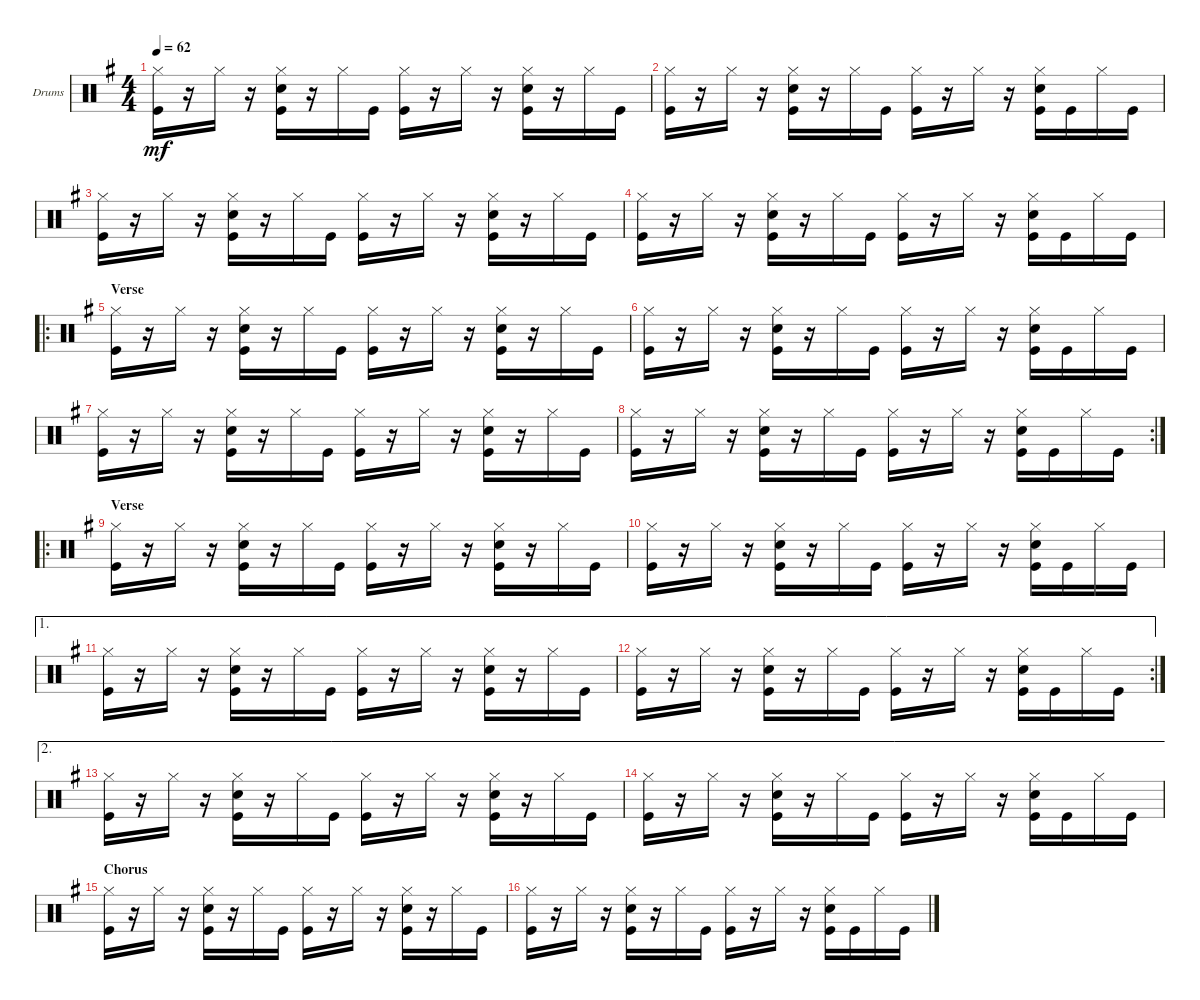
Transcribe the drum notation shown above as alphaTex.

\defaultSystemsLayout 4
\bracketExtendMode groupsimilarinstruments
\firstSystemTrackNameOrientation horizontal
\otherSystemsTrackNameOrientation horizontal
\track ("Drumkit" "Drums") {instrument percussion}
\staff {score}
\articulation defaults
\ts (4 4)
\tempo 62
\clef neutral
\ks g
("Hi-Hat (closed)" "Kick (hit)").16{dy mf} r.16 "Hi-Hat (closed)".16 r.16 ("Hi-Hat (closed)" "Kick (hit)" "Snare (hit) 2").16 r.16 "Hi-Hat (closed)".16 "Kick (hit)".16 ("Kick (hit)" "Hi-Hat (closed)").16 r.16 "Hi-Hat (closed)".16 r.16 ("Hi-Hat (closed)" "Kick (hit)" "Snare (hit) 2").16 r.16 "Hi-Hat (closed)".16 "Kick (hit)".16 |
("Hi-Hat (closed)" "Kick (hit)").16 r.16 "Hi-Hat (closed)".16 r.16 ("Hi-Hat (closed)" "Kick (hit)" "Snare (hit) 2").16 r.16 "Hi-Hat (closed)".16 "Kick (hit)".16 ("Kick (hit)" "Hi-Hat (closed)").16 r.16 "Hi-Hat (closed)".16 r.16 ("Hi-Hat (closed)" "Kick (hit)" "Snare (hit) 2").16 "Kick (hit)".16 "Hi-Hat (closed)".16 "Kick (hit)".16 |
("Hi-Hat (closed)" "Kick (hit)").16 r.16 "Hi-Hat (closed)".16 r.16 ("Hi-Hat (closed)" "Kick (hit)" "Snare (hit) 2").16 r.16 "Hi-Hat (closed)".16 "Kick (hit)".16 ("Kick (hit)" "Hi-Hat (closed)").16 r.16 "Hi-Hat (closed)".16 r.16 ("Hi-Hat (closed)" "Kick (hit)" "Snare (hit) 2").16 r.16 "Hi-Hat (closed)".16 "Kick (hit)".16 |
("Hi-Hat (closed)" "Kick (hit)").16 r.16 "Hi-Hat (closed)".16 r.16 ("Hi-Hat (closed)" "Kick (hit)" "Snare (hit) 2").16 r.16 "Hi-Hat (closed)".16 "Kick (hit)".16 ("Kick (hit)" "Hi-Hat (closed)").16 r.16 "Hi-Hat (closed)".16 r.16 ("Hi-Hat (closed)" "Kick (hit)" "Snare (hit) 2").16 "Kick (hit)".16 "Hi-Hat (closed)".16 "Kick (hit)".16 |
\ro
\section ("" "Verse")
("Hi-Hat (closed)" "Kick (hit)").16 r.16 "Hi-Hat (closed)".16 r.16 ("Hi-Hat (closed)" "Kick (hit)" "Snare (hit) 2").16 r.16 "Hi-Hat (closed)".16 "Kick (hit)".16 ("Kick (hit)" "Hi-Hat (closed)").16 r.16 "Hi-Hat (closed)".16 r.16 ("Hi-Hat (closed)" "Kick (hit)" "Snare (hit) 2").16 r.16 "Hi-Hat (closed)".16 "Kick (hit)".16 |
("Hi-Hat (closed)" "Kick (hit)").16 r.16 "Hi-Hat (closed)".16 r.16 ("Hi-Hat (closed)" "Kick (hit)" "Snare (hit) 2").16 r.16 "Hi-Hat (closed)".16 "Kick (hit)".16 ("Kick (hit)" "Hi-Hat (closed)").16 r.16 "Hi-Hat (closed)".16 r.16 ("Hi-Hat (closed)" "Kick (hit)" "Snare (hit) 2").16 "Kick (hit)".16 "Hi-Hat (closed)".16 "Kick (hit)".16 |
("Hi-Hat (closed)" "Kick (hit)").16 r.16 "Hi-Hat (closed)".16 r.16 ("Hi-Hat (closed)" "Kick (hit)" "Snare (hit) 2").16 r.16 "Hi-Hat (closed)".16 "Kick (hit)".16 ("Kick (hit)" "Hi-Hat (closed)").16 r.16 "Hi-Hat (closed)".16 r.16 ("Hi-Hat (closed)" "Kick (hit)" "Snare (hit) 2").16 r.16 "Hi-Hat (closed)".16 "Kick (hit)".16 |
\rc 2
("Hi-Hat (closed)" "Kick (hit)").16 r.16 "Hi-Hat (closed)".16 r.16 ("Hi-Hat (closed)" "Kick (hit)" "Snare (hit) 2").16 r.16 "Hi-Hat (closed)".16 "Kick (hit)".16 ("Kick (hit)" "Hi-Hat (closed)").16 r.16 "Hi-Hat (closed)".16 r.16 ("Hi-Hat (closed)" "Kick (hit)" "Snare (hit) 2").16 "Kick (hit)".16 "Hi-Hat (closed)".16 "Kick (hit)".16 |
\ro
\section ("" "Verse")
("Hi-Hat (closed)" "Kick (hit)").16 r.16 "Hi-Hat (closed)".16 r.16 ("Hi-Hat (closed)" "Kick (hit)" "Snare (hit) 2").16 r.16 "Hi-Hat (closed)".16 "Kick (hit)".16 ("Kick (hit)" "Hi-Hat (closed)").16 r.16 "Hi-Hat (closed)".16 r.16 ("Hi-Hat (closed)" "Kick (hit)" "Snare (hit) 2").16 r.16 "Hi-Hat (closed)".16 "Kick (hit)".16 |
("Hi-Hat (closed)" "Kick (hit)").16 r.16 "Hi-Hat (closed)".16 r.16 ("Hi-Hat (closed)" "Kick (hit)" "Snare (hit) 2").16 r.16 "Hi-Hat (closed)".16 "Kick (hit)".16 ("Kick (hit)" "Hi-Hat (closed)").16 r.16 "Hi-Hat (closed)".16 r.16 ("Hi-Hat (closed)" "Kick (hit)" "Snare (hit) 2").16 "Kick (hit)".16 "Hi-Hat (closed)".16 "Kick (hit)".16 |
\ae 1
("Hi-Hat (closed)" "Kick (hit)").16 r.16 "Hi-Hat (closed)".16 r.16 ("Hi-Hat (closed)" "Kick (hit)" "Snare (hit) 2").16 r.16 "Hi-Hat (closed)".16 "Kick (hit)".16 ("Kick (hit)" "Hi-Hat (closed)").16 r.16 "Hi-Hat (closed)".16 r.16 ("Hi-Hat (closed)" "Kick (hit)" "Snare (hit) 2").16 r.16 "Hi-Hat (closed)".16 "Kick (hit)".16 |
\ae 1
\rc 2
("Hi-Hat (closed)" "Kick (hit)").16 r.16 "Hi-Hat (closed)".16 r.16 ("Hi-Hat (closed)" "Kick (hit)" "Snare (hit) 2").16 r.16 "Hi-Hat (closed)".16 "Kick (hit)".16 ("Kick (hit)" "Hi-Hat (closed)").16 r.16 "Hi-Hat (closed)".16 r.16 ("Hi-Hat (closed)" "Kick (hit)" "Snare (hit) 2").16 "Kick (hit)".16 "Hi-Hat (closed)".16 "Kick (hit)".16 |
\ae 2
("Hi-Hat (closed)" "Kick (hit)").16 r.16 "Hi-Hat (closed)".16 r.16 ("Hi-Hat (closed)" "Kick (hit)" "Snare (hit) 2").16 r.16 "Hi-Hat (closed)".16 "Kick (hit)".16 ("Kick (hit)" "Hi-Hat (closed)").16 r.16 "Hi-Hat (closed)".16 r.16 ("Hi-Hat (closed)" "Kick (hit)" "Snare (hit) 2").16 r.16 "Hi-Hat (closed)".16 "Kick (hit)".16 |
\ae 2
("Hi-Hat (closed)" "Kick (hit)").16 r.16 "Hi-Hat (closed)".16 r.16 ("Hi-Hat (closed)" "Kick (hit)" "Snare (hit) 2").16 r.16 "Hi-Hat (closed)".16 "Kick (hit)".16 ("Kick (hit)" "Hi-Hat (closed)").16 r.16 "Hi-Hat (closed)".16 r.16 ("Hi-Hat (closed)" "Kick (hit)" "Snare (hit) 2").16 "Kick (hit)".16 "Hi-Hat (closed)".16 "Kick (hit)".16 |
\section ("" "Chorus")
("Hi-Hat (closed)" "Kick (hit)").16 r.16 "Hi-Hat (closed)".16 r.16 ("Hi-Hat (closed)" "Kick (hit)" "Snare (hit) 2").16 r.16 "Hi-Hat (closed)".16 "Kick (hit)".16 ("Kick (hit)" "Hi-Hat (closed)").16 r.16 "Hi-Hat (closed)".16 r.16 ("Hi-Hat (closed)" "Kick (hit)" "Snare (hit) 2").16 r.16 "Hi-Hat (closed)".16 "Kick (hit)".16 |
("Hi-Hat (closed)" "Kick (hit)").16 r.16 "Hi-Hat (closed)".16 r.16 ("Hi-Hat (closed)" "Kick (hit)" "Snare (hit) 2").16 r.16 "Hi-Hat (closed)".16 "Kick (hit)".16 ("Kick (hit)" "Hi-Hat (closed)").16 r.16 "Hi-Hat (closed)".16 r.16 ("Hi-Hat (closed)" "Kick (hit)" "Snare (hit) 2").16 "Kick (hit)".16 "Hi-Hat (closed)".16 "Kick (hit)".16
